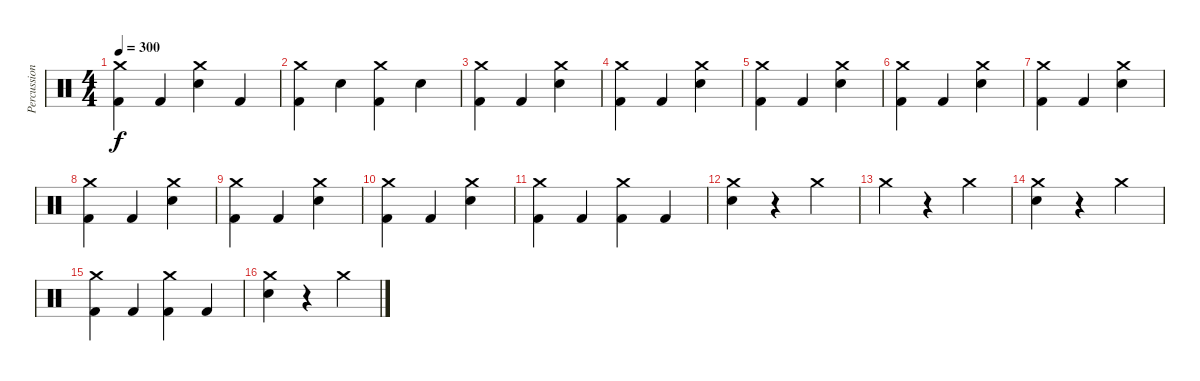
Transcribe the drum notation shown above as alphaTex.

\track ("Percussion" "Percussion") {instrument percussion}
\staff {score}
\articulation defaults
\ts (4 4)
\tempo 300
\clef neutral
\ks c
("Kick (hit) 2" "Crash medium (hit)").4{dy f} "Kick (hit) 2".4 ("Snare (hit) 2" "Crash medium (hit)").4 "Kick (hit) 2".4 |
("Kick (hit) 2" "Crash medium (hit)").4 "Snare (hit) 2".4 ("Kick (hit) 2" "Crash medium (hit)").4 "Snare (hit) 2".4 |
("Kick (hit) 2" "Crash medium (hit)").4 "Kick (hit) 2".4 ("Snare (hit) 2" "Crash medium (hit)").4 |
("Kick (hit) 2" "Crash medium (hit)").4 "Kick (hit) 2".4 ("Snare (hit) 2" "Crash medium (hit)").4 |
("Kick (hit) 2" "Crash medium (hit)").4 "Kick (hit) 2".4 ("Snare (hit) 2" "Crash medium (hit)").4 |
("Kick (hit) 2" "Crash medium (hit)").4 "Kick (hit) 2".4 ("Snare (hit) 2" "Crash medium (hit)").4 |
("Kick (hit) 2" "Crash medium (hit)").4 "Kick (hit) 2".4 ("Snare (hit) 2" "Crash medium (hit)").4 |
("Kick (hit) 2" "Crash medium (hit)").4 "Kick (hit) 2".4 ("Snare (hit) 2" "Crash medium (hit)").4 |
("Kick (hit) 2" "Crash medium (hit)").4 "Kick (hit) 2".4 ("Snare (hit) 2" "Crash medium (hit)").4 |
("Kick (hit) 2" "Crash medium (hit)").4 "Kick (hit) 2".4 ("Snare (hit) 2" "Crash medium (hit)").4 |
("Kick (hit) 2" "Crash medium (hit)").4 "Kick (hit) 2".4 ("Kick (hit) 2" "Crash medium (hit)").4 "Kick (hit) 2".4 |
("Snare (hit) 2" "Crash medium (hit)").4 r.4 "Crash medium (hit)".4 |
"Crash medium (hit)".4 r.4 "Crash medium (hit)".4 |
("Snare (hit) 2" "Crash medium (hit)").4 r.4 "Crash medium (hit)".4 |
("Kick (hit) 2" "Crash medium (hit)").4 "Kick (hit) 2".4 ("Kick (hit) 2" "Crash medium (hit)").4 "Kick (hit) 2".4 |
("Snare (hit) 2" "Crash medium (hit)").4 r.4 "Crash medium (hit)".4
